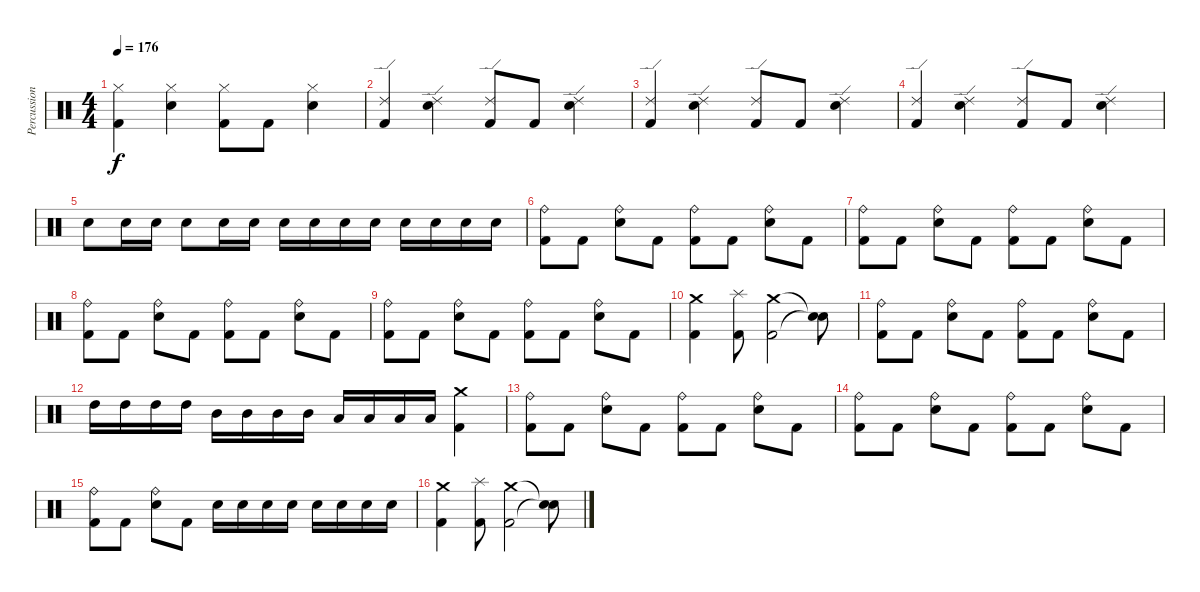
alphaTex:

\track ("Percussion" "Percussion") {instrument percussion}
\staff {score}
\articulation defaults
\ts (4 4)
\tempo 176
\clef neutral
\ks c
("Hi-Hat (closed)" "Kick (hit) 2").4{dy f} ("Hi-Hat (closed)" "Snare (hit) 2").4 ("Hi-Hat (closed)" "Kick (hit) 2").8 "Kick (hit) 2".8 ("Hi-Hat (closed)" "Snare (hit) 2").4 |
("Ride (edge) 2" "Kick (hit) 2").4 ("Ride (edge) 2" "Snare (hit) 2").4 ("Ride (edge) 2" "Kick (hit) 2").8 "Kick (hit) 2".8 ("Ride (edge) 2" "Snare (hit) 2").4 |
("Ride (edge) 2" "Kick (hit) 2").4 ("Ride (edge) 2" "Snare (hit) 2").4 ("Ride (edge) 2" "Kick (hit) 2").8 "Kick (hit) 2".8 ("Ride (edge) 2" "Snare (hit) 2").4 |
("Ride (edge) 2" "Kick (hit) 2").4 ("Ride (edge) 2" "Snare (hit) 2").4 ("Ride (edge) 2" "Kick (hit) 2").8 "Kick (hit) 2".8 ("Ride (edge) 2" "Snare (hit) 2").4 |
"Snare (hit) 2".8 "Snare (hit) 2".16 "Snare (hit) 2".16 "Snare (hit) 2".8 "Snare (hit) 2".16 "Snare (hit) 2".16 "Snare (hit) 2".16 "Snare (hit) 2".16 "Snare (hit) 2".16 "Snare (hit) 2".16 "Snare (hit) 2".16 "Snare (hit) 2".16 "Snare (hit) 2".16 "Snare (hit) 2".16 |
("Ride (bell)" "Kick (hit) 2").8 "Kick (hit) 2".8 ("Ride (bell)" "Snare (hit) 2").8 "Kick (hit) 2".8 ("Ride (bell)" "Kick (hit) 2").8 "Kick (hit) 2".8 ("Ride (bell)" "Snare (hit) 2").8 "Kick (hit) 2".8 |
("Ride (bell)" "Kick (hit) 2").8 "Kick (hit) 2".8 ("Ride (bell)" "Snare (hit) 2").8 "Kick (hit) 2".8 ("Ride (bell)" "Kick (hit) 2").8 "Kick (hit) 2".8 ("Ride (bell)" "Snare (hit) 2").8 "Kick (hit) 2".8 |
("Ride (bell)" "Kick (hit) 2").8 "Kick (hit) 2".8 ("Ride (bell)" "Snare (hit) 2").8 "Kick (hit) 2".8 ("Ride (bell)" "Kick (hit) 2").8 "Kick (hit) 2".8 ("Ride (bell)" "Snare (hit) 2").8 "Kick (hit) 2".8 |
("Ride (bell)" "Kick (hit) 2").8 "Kick (hit) 2".8 ("Ride (bell)" "Snare (hit) 2").8 "Kick (hit) 2".8 ("Ride (bell)" "Kick (hit) 2").8 "Kick (hit) 2".8 ("Ride (bell)" "Snare (hit) 2").8 "Kick (hit) 2".8 |
("Crash medium (hit)" "Kick (hit) 2").4 ("Splash (hit)" "Kick (hit) 2").8 ("Crash medium (hit)" "Kick (hit) 2").2 ("Snare (hit)"{t} "Snare (hit)"{t}).8 |
("Ride (bell)" "Kick (hit) 2").8 "Kick (hit) 2".8 ("Ride (bell)" "Snare (hit) 2").8 "Kick (hit) 2".8 ("Ride (bell)" "Kick (hit) 2").8 "Kick (hit) 2".8 ("Ride (bell)" "Snare (hit) 2").8 "Kick (hit) 2".8 |
"High Tom (hit)".16 "High Tom (hit)".16 "High Tom (hit)".16 "High Tom (hit)".16 "Mid Tom (hit)".16 "Mid Tom (hit)".16 "Mid Tom (hit)".16 "Mid Tom (hit)".16 "Low Tom (hit)".16 "Low Tom (hit)".16 "Low Tom (hit)".16 "Low Tom (hit)".16 ("Crash medium (hit)" "Kick (hit) 2").4 |
("Ride (bell)" "Kick (hit) 2").8 "Kick (hit) 2".8 ("Ride (bell)" "Snare (hit) 2").8 "Kick (hit) 2".8 ("Ride (bell)" "Kick (hit) 2").8 "Kick (hit) 2".8 ("Ride (bell)" "Snare (hit) 2").8 "Kick (hit) 2".8 |
("Ride (bell)" "Kick (hit) 2").8 "Kick (hit) 2".8 ("Ride (bell)" "Snare (hit) 2").8 "Kick (hit) 2".8 ("Ride (bell)" "Kick (hit) 2").8 "Kick (hit) 2".8 ("Ride (bell)" "Snare (hit) 2").8 "Kick (hit) 2".8 |
("Ride (bell)" "Kick (hit) 2").8 "Kick (hit) 2".8 ("Ride (bell)" "Snare (hit) 2").8 "Kick (hit) 2".8 "Snare (hit) 2".16 "Snare (hit) 2".16 "Snare (hit) 2".16 "Snare (hit) 2".16 "Snare (hit) 2".16 "Snare (hit) 2".16 "Snare (hit) 2".16 "Snare (hit) 2".16 |
("Crash medium (hit)" "Kick (hit) 2").4 ("Splash (hit)" "Kick (hit) 2").8 ("Crash medium (hit)" "Kick (hit) 2").2 ("Snare (hit)"{t} "Snare (hit)"{t}).8
